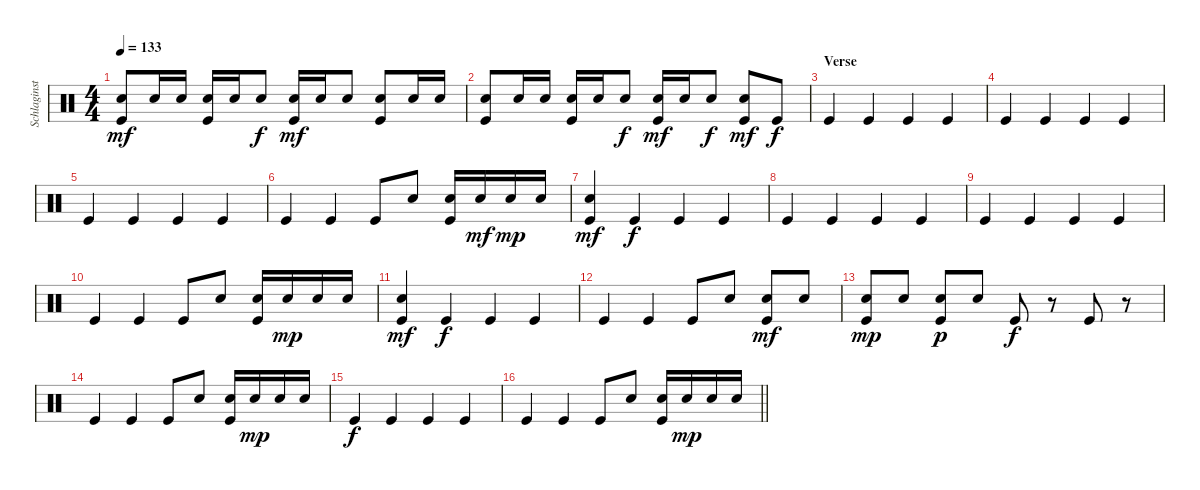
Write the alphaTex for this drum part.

\track ("Schlaginstrumente - Auswahl" "Schlaginst") {instrument percussion}
\staff {score}
\articulation defaults
\ts (4 4)
\tempo 133
\clef neutral
\ks c
("Snare (hit) 2" "Kick (hit)").8{dy mf} "Snare (hit) 2".16 "Snare (hit) 2".16 ("Snare (hit) 2" "Kick (hit)").16 "Snare (hit) 2".16 "Snare (hit) 2".8{dy f} ("Snare (hit) 2" "Kick (hit)").16{dy mf} "Snare (hit) 2".16 "Snare (hit) 2".8 ("Snare (hit) 2" "Kick (hit)").8 "Snare (hit) 2".16 "Snare (hit) 2".16 |
("Snare (hit) 2" "Kick (hit)").8 "Snare (hit) 2".16 "Snare (hit) 2".16 ("Snare (hit) 2" "Kick (hit)").16 "Snare (hit) 2".16 "Snare (hit) 2".8{dy f} ("Snare (hit) 2" "Kick (hit)").16{dy mf} "Snare (hit) 2".16 "Snare (hit) 2".8{dy f} ("Snare (hit) 2" "Kick (hit)").8{dy mf} "Kick (hit)".8{dy f} |
\section ("" "Verse")
"Kick (hit)".4 "Kick (hit)".4 "Kick (hit)".4 "Kick (hit)".4 |
"Kick (hit)".4 "Kick (hit)".4 "Kick (hit)".4 "Kick (hit)".4 |
"Kick (hit)".4 "Kick (hit)".4 "Kick (hit)".4 "Kick (hit)".4 |
"Kick (hit)".4 "Kick (hit)".4 "Kick (hit)".8 "Snare (hit) 2".8 ("Snare (hit) 2" "Kick (hit)").16 "Snare (hit) 2".16{dy mf} "Snare (hit) 2".16{dy mp} "Snare (hit) 2".16 |
("Snare (hit) 2" "Kick (hit)").4{dy mf} "Kick (hit)".4{dy f} "Kick (hit)".4 "Kick (hit)".4 |
"Kick (hit)".4 "Kick (hit)".4 "Kick (hit)".4 "Kick (hit)".4 |
"Kick (hit)".4 "Kick (hit)".4 "Kick (hit)".4 "Kick (hit)".4 |
"Kick (hit)".4 "Kick (hit)".4 "Kick (hit)".8 "Snare (hit) 2".8 ("Snare (hit) 2" "Kick (hit)").16 "Snare (hit) 2".16{dy mp} "Snare (hit) 2".16 "Snare (hit) 2".16 |
("Snare (hit) 2" "Kick (hit)").4{dy mf} "Kick (hit)".4{dy f} "Kick (hit)".4 "Kick (hit)".4 |
"Kick (hit)".4 "Kick (hit)".4 "Kick (hit)".8 "Snare (hit) 2".8 ("Snare (hit) 2" "Kick (hit)").8{dy mf} "Snare (hit) 2".8 |
("Snare (hit) 2" "Kick (hit)").8{dy mp} "Snare (hit) 2".8 ("Snare (hit) 2" "Kick (hit)").8{dy p} "Snare (hit) 2".8 "Kick (hit)".8{dy f} r.8 "Kick (hit)".8 r.8 |
"Kick (hit)".4 "Kick (hit)".4 "Kick (hit)".8 "Snare (hit) 2".8 ("Snare (hit) 2" "Kick (hit)").16 "Snare (hit) 2".16{dy mp} "Snare (hit) 2".16 "Snare (hit) 2".16 |
"Kick (hit)".4{dy f} "Kick (hit)".4 "Kick (hit)".4 "Kick (hit)".4 |
\barLineRight lightlight "Kick (hit)".4 "Kick (hit)".4 "Kick (hit)".8 "Snare (hit) 2".8
("Snare (hit) 2" "Kick (hit)").16 "Snare (hit) 2".16{dy mp} "Snare (hit) 2".16 "Snare (hit) 2".16
